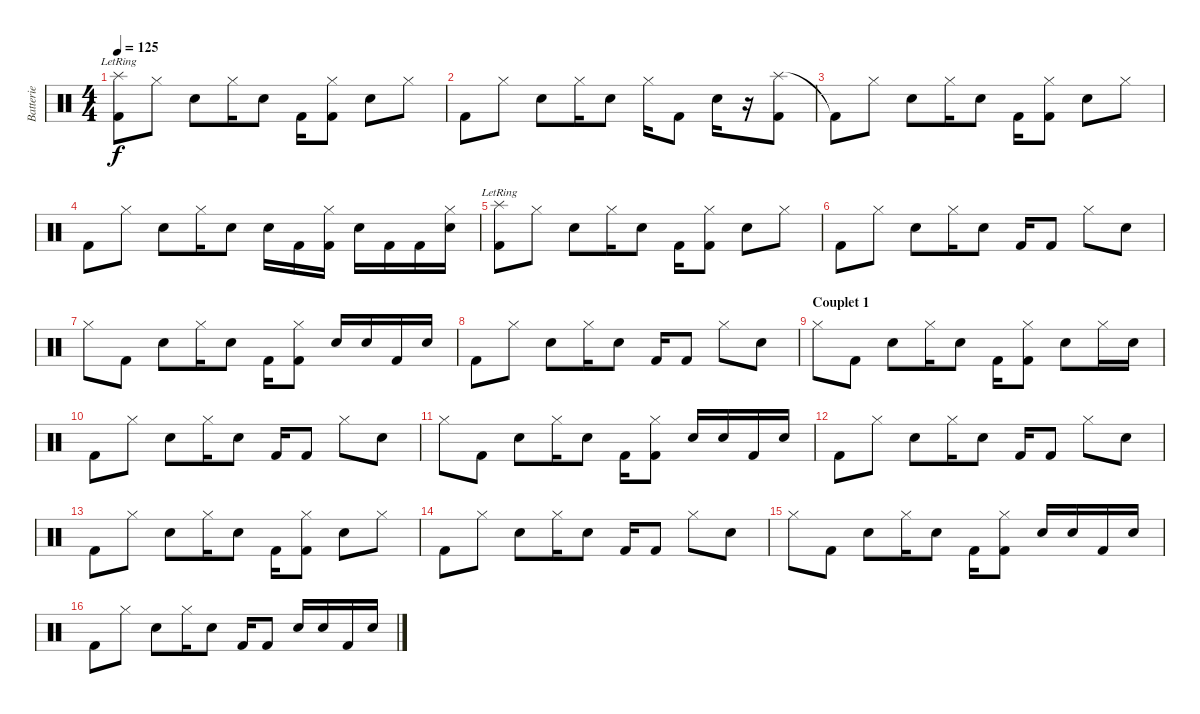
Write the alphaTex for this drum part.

\track ("Batterie" "Batterie") {instrument percussion}
\staff {score}
\articulation defaults
\ts (4 4)
\tempo 125
\clef neutral
\ks c
("Splash (hit)"{lr} "Kick (hit) 2").8{dy f} "Hi-Hat (closed)".8 "Electric Snare (hit)".8 "Hi-Hat (closed)".16 "Electric Snare (hit)".8 "Kick (hit) 2".16 ("Hi-Hat (closed)" "Kick (hit) 2").8 "Electric Snare (hit)".8 "Hi-Hat (closed)".8 |
"Kick (hit) 2".8 "Hi-Hat (closed)".8 "Electric Snare (hit)".8 "Hi-Hat (closed)".16 "Electric Snare (hit)".8 "Hi-Hat (closed)".16 "Kick (hit) 2".8 "Electric Snare (hit)".16 r.16 ("Splash (hit)" "Kick (hit) 2").8 |
"Kick (hit) 2"{t}.8 "Hi-Hat (closed)".8 "Electric Snare (hit)".8 "Hi-Hat (closed)".16 "Electric Snare (hit)".8 "Kick (hit) 2".16 ("Hi-Hat (closed)" "Kick (hit) 2").8 "Electric Snare (hit)".8 "Hi-Hat (closed)".8 |
"Kick (hit) 2".8 "Hi-Hat (closed)".8 "Electric Snare (hit)".8 "Hi-Hat (closed)".16 "Electric Snare (hit)".8 "Electric Snare (hit)".16 "Kick (hit) 2".16 ("Hi-Hat (closed)" "Kick (hit) 2").16 "Electric Snare (hit)".16 "Kick (hit) 2".16 "Kick (hit) 2".16 ("Electric Snare (hit)" "Hi-Hat (closed)").16 |
("Splash (hit)"{lr} "Kick (hit) 2").8 "Hi-Hat (closed)".8 "Electric Snare (hit)".8 "Hi-Hat (closed)".16 "Electric Snare (hit)".8 "Kick (hit) 2".16 ("Hi-Hat (closed)" "Kick (hit) 2").8 "Electric Snare (hit)".8 "Hi-Hat (closed)".8 |
"Kick (hit) 2".8 "Hi-Hat (closed)".8 "Electric Snare (hit)".8 "Hi-Hat (closed)".16 "Electric Snare (hit)".8 "Kick (hit) 2".16 "Kick (hit) 2".8 "Hi-Hat (closed)".8 "Electric Snare (hit)".8 |
"Hi-Hat (closed)".8 "Kick (hit) 2".8 "Electric Snare (hit)".8 "Hi-Hat (closed)".16 "Electric Snare (hit)".8 "Kick (hit) 2".16 ("Hi-Hat (closed)" "Kick (hit) 2").8 "Electric Snare (hit)".16 "Electric Snare (hit)".16 "Kick (hit) 2".16 "Electric Snare (hit)".16 |
"Kick (hit) 2".8 "Hi-Hat (closed)".8 "Electric Snare (hit)".8 "Hi-Hat (closed)".16 "Electric Snare (hit)".8 "Kick (hit) 2".16 "Kick (hit) 2".8 "Hi-Hat (closed)".8 "Electric Snare (hit)".8 |
\section ("" "Couplet 1")
"Hi-Hat (closed)".8 "Kick (hit) 2".8 "Electric Snare (hit)".8 "Hi-Hat (closed)".16 "Electric Snare (hit)".8 "Kick (hit) 2".16 ("Hi-Hat (closed)" "Kick (hit) 2").8 "Electric Snare (hit)".8 "Hi-Hat (closed)".16 "Electric Snare (hit)".16 |
"Kick (hit) 2".8 "Hi-Hat (closed)".8 "Electric Snare (hit)".8 "Hi-Hat (closed)".16 "Electric Snare (hit)".8 "Kick (hit) 2".16 "Kick (hit) 2".8 "Hi-Hat (closed)".8 "Electric Snare (hit)".8 |
"Hi-Hat (closed)".8 "Kick (hit) 2".8 "Electric Snare (hit)".8 "Hi-Hat (closed)".16 "Electric Snare (hit)".8 "Kick (hit) 2".16 ("Hi-Hat (closed)" "Kick (hit) 2").8 "Electric Snare (hit)".16 "Electric Snare (hit)".16 "Kick (hit) 2".16 "Electric Snare (hit)".16 |
"Kick (hit) 2".8 "Hi-Hat (closed)".8 "Electric Snare (hit)".8 "Hi-Hat (closed)".16 "Electric Snare (hit)".8 "Kick (hit) 2".16 "Kick (hit) 2".8 "Hi-Hat (closed)".8 "Electric Snare (hit)".8 |
"Kick (hit) 2".8 "Hi-Hat (closed)".8 "Electric Snare (hit)".8 "Hi-Hat (closed)".16 "Electric Snare (hit)".8 "Kick (hit) 2".16 ("Hi-Hat (closed)" "Kick (hit) 2").8 "Electric Snare (hit)".8 "Hi-Hat (closed)".8 |
"Kick (hit) 2".8 "Hi-Hat (closed)".8 "Electric Snare (hit)".8 "Hi-Hat (closed)".16 "Electric Snare (hit)".8 "Kick (hit) 2".16 "Kick (hit) 2".8 "Hi-Hat (closed)".8 "Electric Snare (hit)".8 |
"Hi-Hat (closed)".8 "Kick (hit) 2".8 "Electric Snare (hit)".8 "Hi-Hat (closed)".16 "Electric Snare (hit)".8 "Kick (hit) 2".16 ("Hi-Hat (closed)" "Kick (hit) 2").8 "Electric Snare (hit)".16 "Electric Snare (hit)".16 "Kick (hit) 2".16 "Electric Snare (hit)".16 |
"Kick (hit) 2".8 "Hi-Hat (closed)".8 "Electric Snare (hit)".8 "Hi-Hat (closed)".16 "Electric Snare (hit)".8 "Kick (hit) 2".16 "Kick (hit) 2".8 "Electric Snare (hit)".16 "Electric Snare (hit)".16 "Kick (hit) 2".16 "Electric Snare (hit)".16
